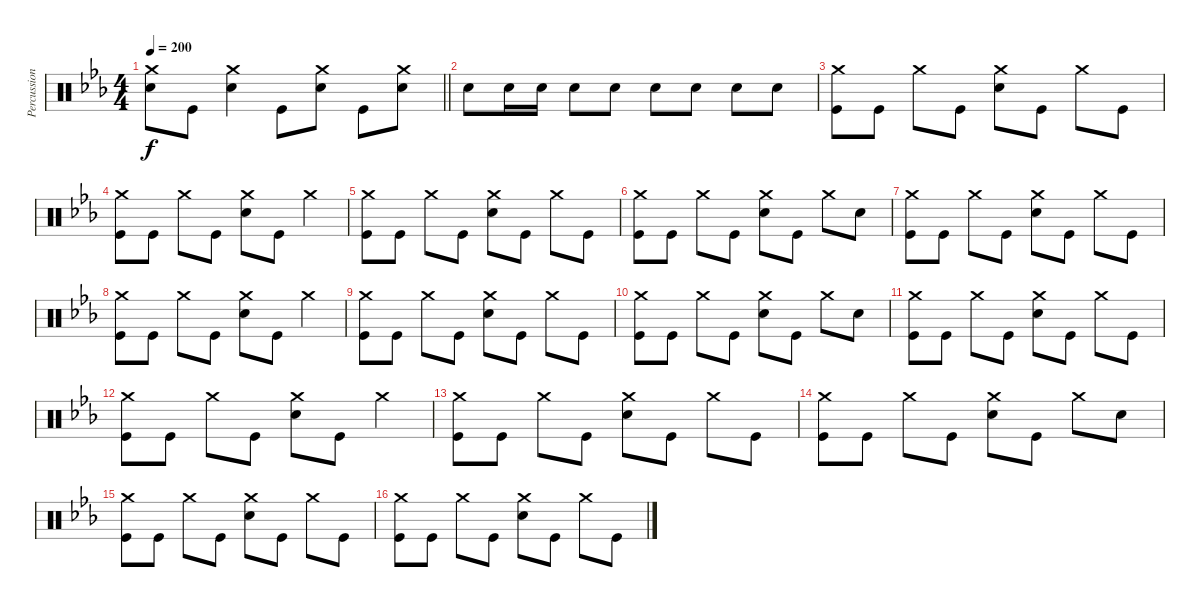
\track ("Percussion" "Percussion") {instrument percussion}
\staff {score}
\articulation defaults
\ts (4 4)
\tempo 200
\clef neutral
\barLineRight lightlight
\ks eb
("Crash medium (hit)" "Snare (hit) 2").8{dy f} "Kick (hit)".8 ("Crash medium (hit)" "Snare (hit) 2").4 "Kick (hit)".8 ("Crash medium (hit)" "Snare (hit) 2").8 "Kick (hit)".8 ("Crash medium (hit)" "Snare (hit) 2").8 |
"Snare (hit) 2".8 "Snare (hit) 2".16 "Snare (hit) 2".16 "Snare (hit) 2".8 "Snare (hit) 2".8 "Snare (hit) 2".8 "Snare (hit) 2".8 "Snare (hit) 2".8 "Snare (hit) 2".8 |
("Crash medium (hit)" "Kick (hit)").8 "Kick (hit)".8 "Crash medium (hit)".8 "Kick (hit)".8 ("Crash medium (hit)" "Snare (hit) 2").8 "Kick (hit)".8 "Crash medium (hit)".8 "Kick (hit)".8 |
("Crash medium (hit)" "Kick (hit)").8 "Kick (hit)".8 "Crash medium (hit)".8 "Kick (hit)".8 ("Crash medium (hit)" "Snare (hit) 2").8 "Kick (hit)".8 "Crash medium (hit)".4 |
("Crash medium (hit)" "Kick (hit)").8 "Kick (hit)".8 "Crash medium (hit)".8 "Kick (hit)".8 ("Crash medium (hit)" "Snare (hit) 2").8 "Kick (hit)".8 "Crash medium (hit)".8 "Kick (hit)".8 |
("Crash medium (hit)" "Kick (hit)").8 "Kick (hit)".8 "Crash medium (hit)".8 "Kick (hit)".8 ("Crash medium (hit)" "Snare (hit) 2").8 "Kick (hit)".8 "Crash medium (hit)".8 "Snare (hit) 2".8 |
("Crash medium (hit)" "Kick (hit)").8 "Kick (hit)".8 "Crash medium (hit)".8 "Kick (hit)".8 ("Crash medium (hit)" "Snare (hit) 2").8 "Kick (hit)".8 "Crash medium (hit)".8 "Kick (hit)".8 |
("Crash medium (hit)" "Kick (hit)").8 "Kick (hit)".8 "Crash medium (hit)".8 "Kick (hit)".8 ("Crash medium (hit)" "Snare (hit) 2").8 "Kick (hit)".8 "Crash medium (hit)".4 |
("Crash medium (hit)" "Kick (hit)").8 "Kick (hit)".8 "Crash medium (hit)".8 "Kick (hit)".8 ("Crash medium (hit)" "Snare (hit) 2").8 "Kick (hit)".8 "Crash medium (hit)".8 "Kick (hit)".8 |
("Crash medium (hit)" "Kick (hit)").8 "Kick (hit)".8 "Crash medium (hit)".8 "Kick (hit)".8 ("Crash medium (hit)" "Snare (hit) 2").8 "Kick (hit)".8 "Crash medium (hit)".8 "Snare (hit) 2".8 |
("Crash medium (hit)" "Kick (hit)").8 "Kick (hit)".8 "Crash medium (hit)".8 "Kick (hit)".8 ("Crash medium (hit)" "Snare (hit) 2").8 "Kick (hit)".8 "Crash medium (hit)".8 "Kick (hit)".8 |
("Crash medium (hit)" "Kick (hit)").8 "Kick (hit)".8 "Crash medium (hit)".8 "Kick (hit)".8 ("Crash medium (hit)" "Snare (hit) 2").8 "Kick (hit)".8 "Crash medium (hit)".4 |
("Crash medium (hit)" "Kick (hit)").8 "Kick (hit)".8 "Crash medium (hit)".8 "Kick (hit)".8 ("Crash medium (hit)" "Snare (hit) 2").8 "Kick (hit)".8 "Crash medium (hit)".8 "Kick (hit)".8 |
("Crash medium (hit)" "Kick (hit)").8 "Kick (hit)".8 "Crash medium (hit)".8 "Kick (hit)".8 ("Crash medium (hit)" "Snare (hit) 2").8 "Kick (hit)".8 "Crash medium (hit)".8 "Snare (hit) 2".8 |
("Crash medium (hit)" "Kick (hit)").8 "Kick (hit)".8 "Crash medium (hit)".8 "Kick (hit)".8 ("Crash medium (hit)" "Snare (hit) 2").8 "Kick (hit)".8 "Crash medium (hit)".8 "Kick (hit)".8 |
("Crash medium (hit)" "Kick (hit)").8 "Kick (hit)".8 "Crash medium (hit)".8 "Kick (hit)".8 ("Crash medium (hit)" "Snare (hit) 2").8 "Kick (hit)".8 "Crash medium (hit)".8 "Kick (hit)".8
